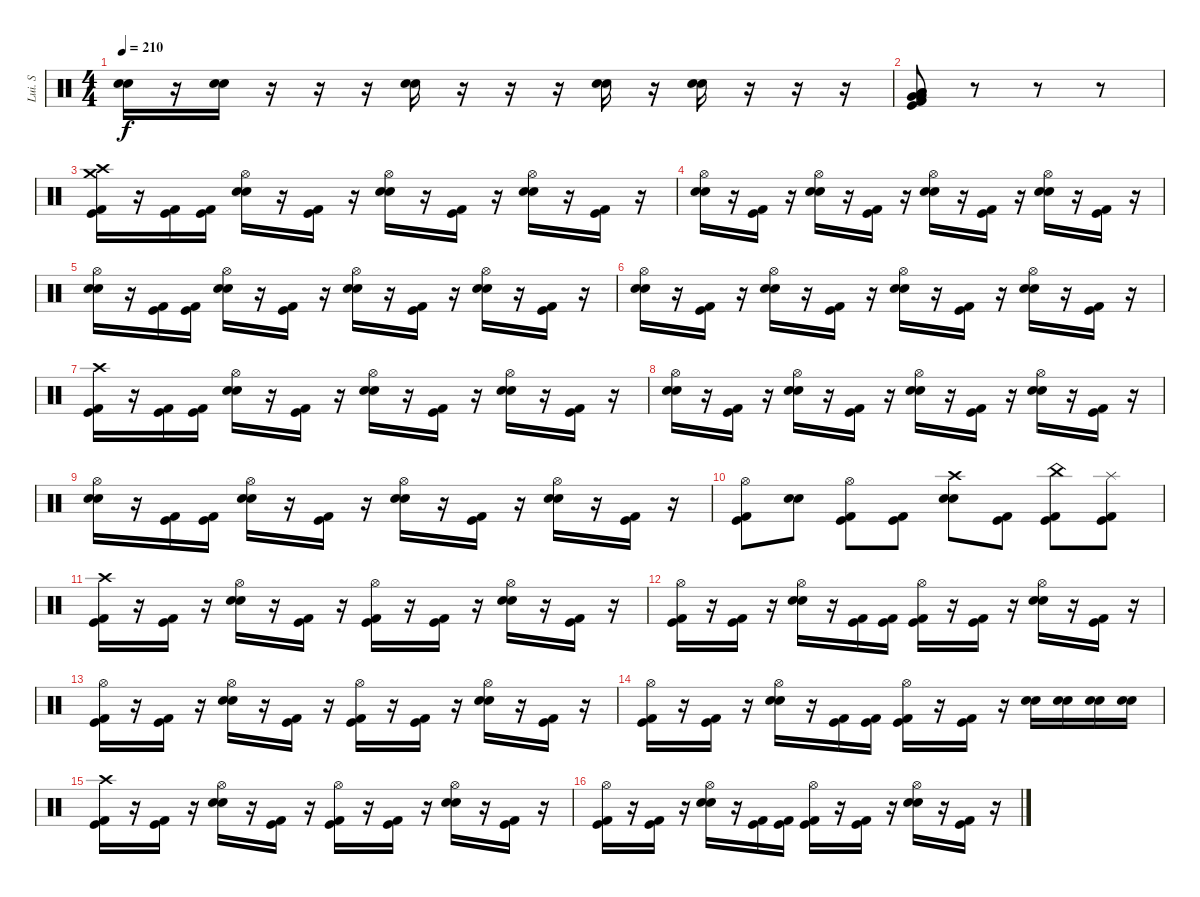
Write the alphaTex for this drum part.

\track ("Lui. S" "Lui. S") {instrument percussion}
\staff {score}
\articulation defaults
\ts (4 4)
\tempo 210
\clef neutral
\ks c
("Electric Snare (hit)" "Snare (hit) 2").16{dy f} r.16 ("Electric Snare (hit)" "Snare (hit) 2").16 r.16 r.16 r.16 ("Electric Snare (hit)" "Snare (hit) 2").16 r.16 r.16 r.16 ("Electric Snare (hit)" "Snare (hit) 2").16 r.16 ("Electric Snare (hit)" "Snare (hit) 2").16 r.16 r.16 r.16 |
("Very Low Tom (hit)" "Very Low Tom (hit)" "Low Floor Tom (hit)" "Low Floor Tom (hit)" "Kick (hit) 2" "Kick (hit)").8 r.8 r.8 r.8 |
("Crash high (hit)" "Crash medium (hit)" "Kick (hit)" "Kick (hit) 2").16 r.16 ("Kick (hit) 2" "Kick (hit)").16 ("Kick (hit) 2" "Kick (hit)").16 ("Hi-Hat (open)" "Electric Snare (hit)" "Snare (hit) 2").16 r.16 ("Kick (hit) 2" "Kick (hit)").16 r.16 ("Hi-Hat (open)" "Electric Snare (hit)" "Snare (hit) 2").16 r.16 ("Kick (hit) 2" "Kick (hit)").16 r.16 ("Hi-Hat (open)" "Electric Snare (hit)" "Snare (hit) 2").16 r.16 ("Kick (hit) 2" "Kick (hit)").16 r.16 |
("Hi-Hat (open)" "Electric Snare (hit)" "Snare (hit) 2").16 r.16 ("Kick (hit) 2" "Kick (hit)").16 r.16 ("Hi-Hat (open)" "Electric Snare (hit)" "Snare (hit) 2").16 r.16 ("Kick (hit) 2" "Kick (hit)").16 r.16 ("Hi-Hat (open)" "Electric Snare (hit)" "Snare (hit) 2").16 r.16 ("Kick (hit) 2" "Kick (hit)").16 r.16 ("Hi-Hat (open)" "Snare (hit) 2" "Electric Snare (hit)").16 r.16 ("Kick (hit) 2" "Kick (hit)").16 r.16 |
("Hi-Hat (open)" "Electric Snare (hit)" "Snare (hit) 2").16 r.16 ("Kick (hit) 2" "Kick (hit)").16 ("Kick (hit) 2" "Kick (hit)").16 ("Hi-Hat (open)" "Electric Snare (hit)" "Snare (hit) 2").16 r.16 ("Kick (hit) 2" "Kick (hit)").16 r.16 ("Hi-Hat (open)" "Electric Snare (hit)" "Snare (hit) 2").16 r.16 ("Kick (hit) 2" "Kick (hit)").16 r.16 ("Hi-Hat (open)" "Snare (hit) 2" "Electric Snare (hit)").16 r.16 ("Kick (hit) 2" "Kick (hit)").16 r.16 |
("Hi-Hat (open)" "Electric Snare (hit)" "Snare (hit) 2").16 r.16 ("Kick (hit) 2" "Kick (hit)").16 r.16 ("Hi-Hat (open)" "Electric Snare (hit)" "Snare (hit) 2").16 r.16 ("Kick (hit) 2" "Kick (hit)").16 r.16 ("Hi-Hat (open)" "Electric Snare (hit)" "Snare (hit) 2").16 r.16 ("Kick (hit) 2" "Kick (hit)").16 r.16 ("Hi-Hat (open)" "Snare (hit) 2" "Electric Snare (hit)").16 r.16 ("Kick (hit) 2" "Kick (hit)").16 r.16 |
("Crash high (hit)" "Kick (hit)" "Kick (hit) 2").16 r.16 ("Kick (hit) 2" "Kick (hit)").16 ("Kick (hit) 2" "Kick (hit)").16 ("Hi-Hat (open)" "Electric Snare (hit)" "Snare (hit) 2").16 r.16 ("Kick (hit) 2" "Kick (hit)").16 r.16 ("Hi-Hat (open)" "Electric Snare (hit)" "Snare (hit) 2").16 r.16 ("Kick (hit) 2" "Kick (hit)").16 r.16 ("Hi-Hat (open)" "Electric Snare (hit)" "Snare (hit) 2").16 r.16 ("Kick (hit) 2" "Kick (hit)").16 r.16 |
("Hi-Hat (open)" "Electric Snare (hit)" "Snare (hit) 2").16 r.16 ("Kick (hit) 2" "Kick (hit)").16 r.16 ("Hi-Hat (open)" "Electric Snare (hit)" "Snare (hit) 2").16 r.16 ("Kick (hit) 2" "Kick (hit)").16 r.16 ("Hi-Hat (open)" "Electric Snare (hit)" "Snare (hit) 2").16 r.16 ("Kick (hit) 2" "Kick (hit)").16 r.16 ("Hi-Hat (open)" "Snare (hit) 2" "Electric Snare (hit)").16 r.16 ("Kick (hit) 2" "Kick (hit)").16 r.16 |
("Hi-Hat (open)" "Electric Snare (hit)" "Snare (hit) 2").16 r.16 ("Kick (hit) 2" "Kick (hit)").16 ("Kick (hit) 2" "Kick (hit)").16 ("Hi-Hat (open)" "Electric Snare (hit)" "Snare (hit) 2").16 r.16 ("Kick (hit) 2" "Kick (hit)").16 r.16 ("Hi-Hat (open)" "Electric Snare (hit)" "Snare (hit) 2").16 r.16 ("Kick (hit) 2" "Kick (hit)").16 r.16 ("Hi-Hat (open)" "Snare (hit) 2" "Electric Snare (hit)").16 r.16 ("Kick (hit) 2" "Kick (hit)").16 r.16 |
("Hi-Hat (open)" "Kick (hit) 2" "Kick (hit)").8 ("Electric Snare (hit)" "Snare (hit) 2").8 ("Hi-Hat (open)" "Kick (hit) 2" "Kick (hit)").8 ("Kick (hit) 2" "Kick (hit)").8 ("Crash high (hit)" "Electric Snare (hit)" "Snare (hit) 2").8 ("Kick (hit) 2" "Kick (hit)").8 ("China (hit)" "Kick (hit) 2" "Kick (hit)").8 ("Splash (hit)" "Kick (hit) 2" "Kick (hit)").8 |
("Crash high (hit)" "Kick (hit)" "Kick (hit) 2").16 r.16 ("Kick (hit) 2" "Kick (hit)").16 r.16 ("Hi-Hat (open)" "Electric Snare (hit)" "Snare (hit) 2").16 r.16 ("Kick (hit) 2" "Kick (hit)").16 r.16 ("Hi-Hat (open)" "Kick (hit) 2" "Kick (hit)").16 r.16 ("Kick (hit) 2" "Kick (hit)").16 r.16 ("Hi-Hat (open)" "Electric Snare (hit)" "Snare (hit) 2").16 r.16 ("Kick (hit)" "Kick (hit) 2").16 r.16 |
("Hi-Hat (open)" "Kick (hit)" "Kick (hit) 2").16 r.16 ("Kick (hit) 2" "Kick (hit)").16 r.16 ("Hi-Hat (open)" "Electric Snare (hit)" "Snare (hit) 2").16 r.16 ("Kick (hit) 2" "Kick (hit)").16 ("Kick (hit) 2" "Kick (hit)").16 ("Hi-Hat (open)" "Kick (hit) 2" "Kick (hit)").16 r.16 ("Kick (hit) 2" "Kick (hit)").16 r.16 ("Hi-Hat (open)" "Electric Snare (hit)" "Snare (hit) 2").16 r.16 ("Kick (hit)" "Kick (hit) 2").16 r.16 |
("Hi-Hat (open)" "Kick (hit)" "Kick (hit) 2").16 r.16 ("Kick (hit) 2" "Kick (hit)").16 r.16 ("Hi-Hat (open)" "Electric Snare (hit)" "Snare (hit) 2").16 r.16 ("Kick (hit) 2" "Kick (hit)").16 r.16 ("Hi-Hat (open)" "Kick (hit) 2" "Kick (hit)").16 r.16 ("Kick (hit) 2" "Kick (hit)").16 r.16 ("Hi-Hat (open)" "Electric Snare (hit)" "Snare (hit) 2").16 r.16 ("Kick (hit)" "Kick (hit) 2").16 r.16 |
("Hi-Hat (open)" "Kick (hit)" "Kick (hit) 2").16 r.16 ("Kick (hit) 2" "Kick (hit)").16 r.16 ("Hi-Hat (open)" "Electric Snare (hit)" "Snare (hit) 2").16 r.16 ("Kick (hit) 2" "Kick (hit)").16 ("Kick (hit) 2" "Kick (hit)").16 ("Hi-Hat (open)" "Kick (hit) 2" "Kick (hit)").16 r.16 ("Kick (hit) 2" "Kick (hit)").16 r.16 ("Electric Snare (hit)" "Snare (hit) 2").16 ("Electric Snare (hit)" "Snare (hit) 2").16 ("Electric Snare (hit)" "Snare (hit) 2").16 ("Electric Snare (hit)" "Snare (hit) 2").16 |
("Crash high (hit)" "Kick (hit)" "Kick (hit) 2").16 r.16 ("Kick (hit) 2" "Kick (hit)").16 r.16 ("Hi-Hat (open)" "Electric Snare (hit)" "Snare (hit) 2").16 r.16 ("Kick (hit) 2" "Kick (hit)").16 r.16 ("Hi-Hat (open)" "Kick (hit) 2" "Kick (hit)").16 r.16 ("Kick (hit) 2" "Kick (hit)").16 r.16 ("Hi-Hat (open)" "Electric Snare (hit)" "Snare (hit) 2").16 r.16 ("Kick (hit)" "Kick (hit) 2").16 r.16 |
("Hi-Hat (open)" "Kick (hit)" "Kick (hit) 2").16 r.16 ("Kick (hit) 2" "Kick (hit)").16 r.16 ("Hi-Hat (open)" "Electric Snare (hit)" "Snare (hit) 2").16 r.16 ("Kick (hit) 2" "Kick (hit)").16 ("Kick (hit) 2" "Kick (hit)").16 ("Hi-Hat (open)" "Kick (hit) 2" "Kick (hit)").16 r.16 ("Kick (hit) 2" "Kick (hit)").16 r.16 ("Hi-Hat (open)" "Electric Snare (hit)" "Snare (hit) 2").16 r.16 ("Kick (hit)" "Kick (hit) 2").16 r.16
